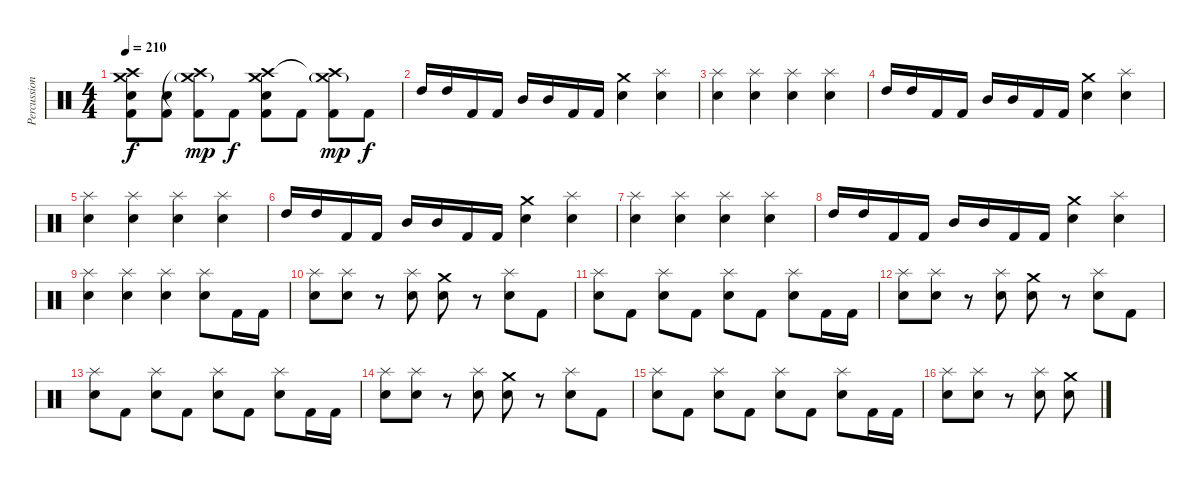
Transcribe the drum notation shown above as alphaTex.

\track ("Percussion" "Percussion") {instrument percussion}
\staff {score}
\articulation defaults
\ts (4 4)
\tempo 210
\clef neutral
\ks c
("Crash medium (hit)" "Crash high (hit)" "Electric Snare (hit)" "Kick (hit) 2").8{dy f} ("Electric Snare (hit)" "Kick (hit) 2").8 ("Crash medium (hit)"{g} "Crash high (hit)"{t} "Kick (hit) 2").8{dy mp} "Kick (hit) 2".8{dy f} ("Crash medium (hit)" "Crash high (hit)" "Electric Snare (hit)" "Kick (hit) 2").8 "Kick (hit) 2".8 ("Crash medium (hit)"{g} "Crash high (hit)"{t} "Kick (hit) 2").8{dy mp} "Kick (hit) 2".8{dy f} |
"High Tom (hit)".16 "High Tom (hit)".16 "Kick (hit) 2".16 "Kick (hit) 2".16 "Mid Tom (hit)".16 "Mid Tom (hit)".16 "Kick (hit) 2".16 "Kick (hit) 2".16 ("Crash medium (hit)" "Electric Snare (hit)").4 ("Splash (hit)" "Electric Snare (hit)").4 |
("Splash (hit)" "Electric Snare (hit)").4 ("Splash (hit)" "Electric Snare (hit)").4 ("Splash (hit)" "Electric Snare (hit)").4 ("Splash (hit)" "Electric Snare (hit)").4 |
"High Tom (hit)".16 "High Tom (hit)".16 "Kick (hit) 2".16 "Kick (hit) 2".16 "Mid Tom (hit)".16 "Mid Tom (hit)".16 "Kick (hit) 2".16 "Kick (hit) 2".16 ("Crash medium (hit)" "Electric Snare (hit)").4 ("Splash (hit)" "Electric Snare (hit)").4 |
("Splash (hit)" "Electric Snare (hit)").4 ("Splash (hit)" "Electric Snare (hit)").4 ("Splash (hit)" "Electric Snare (hit)").4 ("Splash (hit)" "Electric Snare (hit)").4 |
"High Tom (hit)".16 "High Tom (hit)".16 "Kick (hit) 2".16 "Kick (hit) 2".16 "Mid Tom (hit)".16 "Mid Tom (hit)".16 "Kick (hit) 2".16 "Kick (hit) 2".16 ("Crash medium (hit)" "Electric Snare (hit)").4 ("Splash (hit)" "Electric Snare (hit)").4 |
("Splash (hit)" "Electric Snare (hit)").4 ("Splash (hit)" "Electric Snare (hit)").4 ("Splash (hit)" "Electric Snare (hit)").4 ("Splash (hit)" "Electric Snare (hit)").4 |
"High Tom (hit)".16 "High Tom (hit)".16 "Kick (hit) 2".16 "Kick (hit) 2".16 "Mid Tom (hit)".16 "Mid Tom (hit)".16 "Kick (hit) 2".16 "Kick (hit) 2".16 ("Crash medium (hit)" "Electric Snare (hit)").4 ("Splash (hit)" "Electric Snare (hit)").4 |
("Splash (hit)" "Electric Snare (hit)").4 ("Splash (hit)" "Electric Snare (hit)").4 ("Splash (hit)" "Electric Snare (hit)").4 ("Splash (hit)" "Electric Snare (hit)").8 "Kick (hit) 2".16 "Kick (hit) 2".16 |
("Splash (hit)" "Electric Snare (hit)").8 ("Splash (hit)" "Electric Snare (hit)").8 r.8 ("Splash (hit)" "Electric Snare (hit)").8 ("Crash medium (hit)" "Electric Snare (hit)").8 r.8 ("Splash (hit)" "Electric Snare (hit)").8 "Kick (hit) 2".8 |
("Splash (hit)" "Electric Snare (hit)").8 "Kick (hit) 2".8 ("Splash (hit)" "Electric Snare (hit)").8 "Kick (hit) 2".8 ("Splash (hit)" "Electric Snare (hit)").8 "Kick (hit) 2".8 ("Splash (hit)" "Electric Snare (hit)").8 "Kick (hit) 2".16 "Kick (hit) 2".16 |
("Splash (hit)" "Electric Snare (hit)").8 ("Splash (hit)" "Electric Snare (hit)").8 r.8 ("Splash (hit)" "Electric Snare (hit)").8 ("Crash medium (hit)" "Electric Snare (hit)").8 r.8 ("Splash (hit)" "Electric Snare (hit)").8 "Kick (hit) 2".8 |
("Splash (hit)" "Electric Snare (hit)").8 "Kick (hit) 2".8 ("Splash (hit)" "Electric Snare (hit)").8 "Kick (hit) 2".8 ("Splash (hit)" "Electric Snare (hit)").8 "Kick (hit) 2".8 ("Splash (hit)" "Electric Snare (hit)").8 "Kick (hit) 2".16 "Kick (hit) 2".16 |
("Splash (hit)" "Electric Snare (hit)").8 ("Splash (hit)" "Electric Snare (hit)").8 r.8 ("Splash (hit)" "Electric Snare (hit)").8 ("Crash medium (hit)" "Electric Snare (hit)").8 r.8 ("Splash (hit)" "Electric Snare (hit)").8 "Kick (hit) 2".8 |
("Splash (hit)" "Electric Snare (hit)").8 "Kick (hit) 2".8 ("Splash (hit)" "Electric Snare (hit)").8 "Kick (hit) 2".8 ("Splash (hit)" "Electric Snare (hit)").8 "Kick (hit) 2".8 ("Splash (hit)" "Electric Snare (hit)").8 "Kick (hit) 2".16 "Kick (hit) 2".16 |
("Splash (hit)" "Electric Snare (hit)").8 ("Splash (hit)" "Electric Snare (hit)").8 r.8 ("Splash (hit)" "Electric Snare (hit)").8 ("Crash medium (hit)" "Electric Snare (hit)").8
